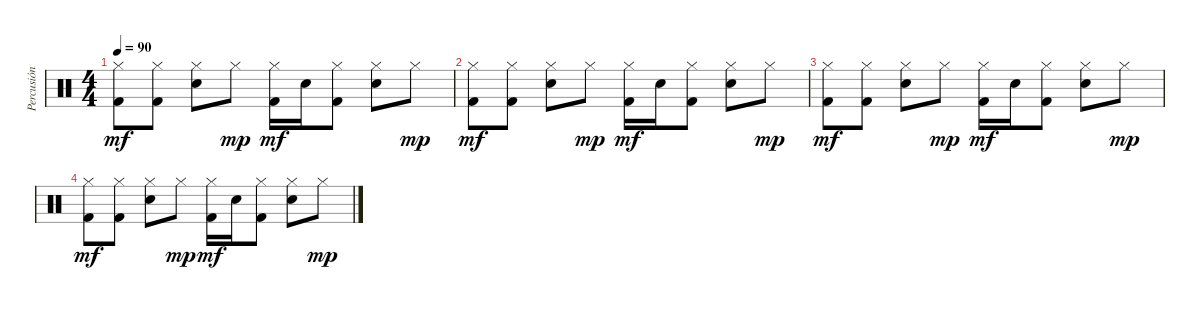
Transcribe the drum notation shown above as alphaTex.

\track ("Percusión" "Percusión") {instrument percussion}
\staff {score}
\articulation defaults
\ts (4 4)
\tempo 90
\clef neutral
\ks c
("Hi-Hat (closed)" "Kick (hit) 2").8{dy mf} ("Hi-Hat (closed)" "Kick (hit) 2").8 ("Hi-Hat (closed)" "Electric Snare (hit)").8 "Hi-Hat (closed)".8{dy mp} ("Hi-Hat (closed)" "Kick (hit) 2").16{dy mf} "Electric Snare (hit)".16 ("Hi-Hat (closed)" "Kick (hit) 2").8 ("Hi-Hat (closed)" "Electric Snare (hit)").8 "Hi-Hat (closed)".8{dy mp} |
("Hi-Hat (closed)" "Kick (hit) 2").8{dy mf} ("Hi-Hat (closed)" "Kick (hit) 2").8 ("Hi-Hat (closed)" "Electric Snare (hit)").8 "Hi-Hat (closed)".8{dy mp} ("Hi-Hat (closed)" "Kick (hit) 2").16{dy mf} "Electric Snare (hit)".16 ("Hi-Hat (closed)" "Kick (hit) 2").8 ("Hi-Hat (closed)" "Electric Snare (hit)").8 "Hi-Hat (closed)".8{dy mp} |
("Hi-Hat (closed)" "Kick (hit) 2").8{dy mf} ("Hi-Hat (closed)" "Kick (hit) 2").8 ("Hi-Hat (closed)" "Electric Snare (hit)").8 "Hi-Hat (closed)".8{dy mp} ("Hi-Hat (closed)" "Kick (hit) 2").16{dy mf} "Electric Snare (hit)".16 ("Hi-Hat (closed)" "Kick (hit) 2").8 ("Hi-Hat (closed)" "Electric Snare (hit)").8 "Hi-Hat (closed)".8{dy mp} |
("Hi-Hat (closed)" "Kick (hit) 2").8{dy mf} ("Hi-Hat (closed)" "Kick (hit) 2").8 ("Hi-Hat (closed)" "Electric Snare (hit)").8 "Hi-Hat (closed)".8{dy mp} ("Hi-Hat (closed)" "Kick (hit) 2").16{dy mf} "Electric Snare (hit)".16 ("Hi-Hat (closed)" "Kick (hit) 2").8 ("Hi-Hat (closed)" "Electric Snare (hit)").8 "Hi-Hat (closed)".8{dy mp}
